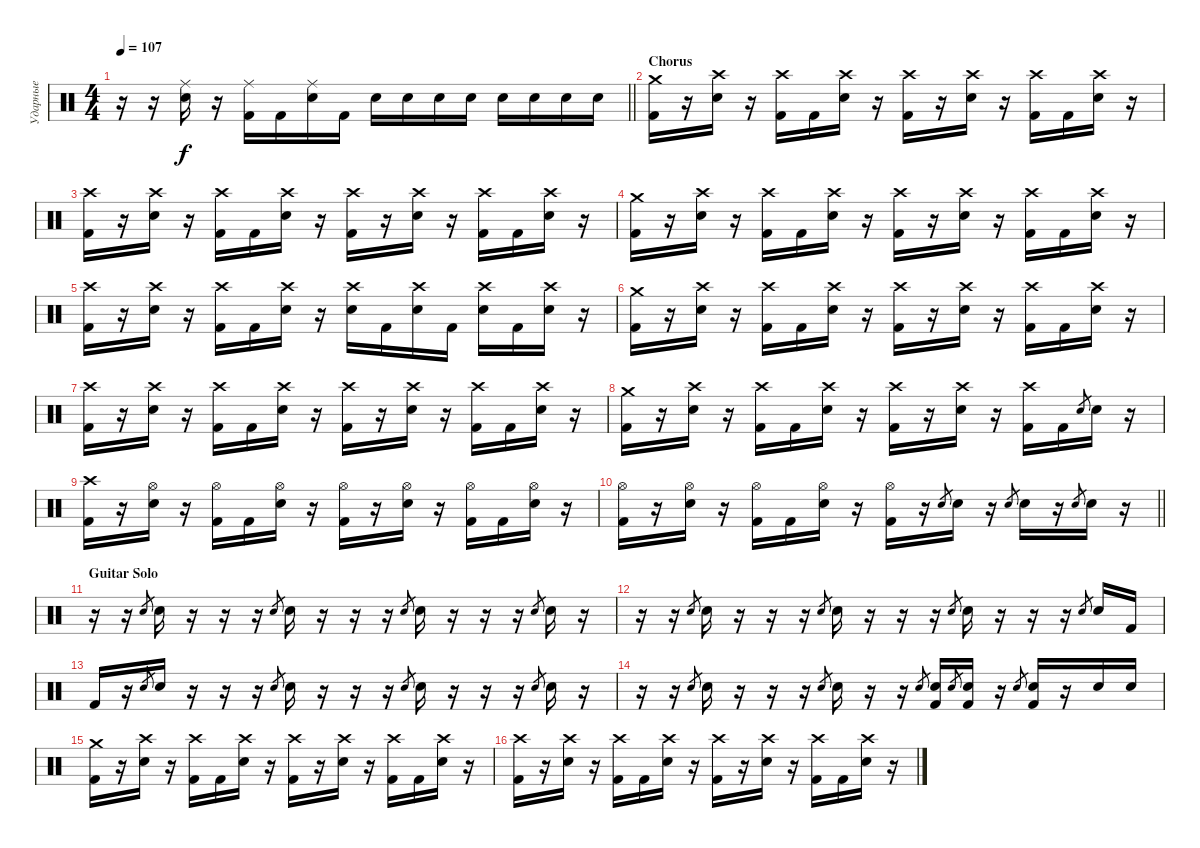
\track ("Ударные" "Ударные") {instrument percussion}
\staff {score}
\articulation defaults
\ts (4 4)
\tempo 107
\clef neutral
\barLineRight lightlight
\ks c
r.16{dy f} r.16 ("Ride (middle)" "Electric Snare (hit)").16 r.16 ("Ride (middle)" "Kick (hit) 2").16 "Kick (hit) 2".16 ("Ride (middle)" "Electric Snare (hit)").16 "Kick (hit) 2".16 "Electric Snare (hit)".16 "Electric Snare (hit)".16 "Electric Snare (hit)".16 "Electric Snare (hit)".16 "Electric Snare (hit)".16 "Electric Snare (hit)".16 "Electric Snare (hit)".16 "Electric Snare (hit)".16 |
\section ("" "Chorus")
("Crash medium (hit)" "Kick (hit) 2").16 r.16 ("Crash high (hit)" "Electric Snare (hit)").16 r.16 ("Crash high (hit)" "Kick (hit) 2").16 "Kick (hit) 2".16 ("Crash high (hit)" "Electric Snare (hit)").16 r.16 ("Crash high (hit)" "Kick (hit) 2").16 r.16 ("Crash high (hit)" "Electric Snare (hit)").16 r.16 ("Crash high (hit)" "Kick (hit) 2").16 "Kick (hit) 2".16 ("Crash high (hit)" "Electric Snare (hit)").16 r.16 |
("Crash high (hit)" "Kick (hit) 2").16 r.16 ("Crash high (hit)" "Electric Snare (hit)").16 r.16 ("Crash high (hit)" "Kick (hit) 2").16 "Kick (hit) 2".16 ("Crash high (hit)" "Electric Snare (hit)").16 r.16 ("Crash high (hit)" "Kick (hit) 2").16 r.16 ("Crash high (hit)" "Electric Snare (hit)").16 r.16 ("Crash high (hit)" "Kick (hit) 2").16 "Kick (hit) 2".16 ("Crash high (hit)" "Electric Snare (hit)").16 r.16 |
("Crash medium (hit)" "Kick (hit) 2").16 r.16 ("Crash high (hit)" "Electric Snare (hit)").16 r.16 ("Crash high (hit)" "Kick (hit) 2").16 "Kick (hit) 2".16 ("Crash high (hit)" "Electric Snare (hit)").16 r.16 ("Crash high (hit)" "Kick (hit) 2").16 r.16 ("Crash high (hit)" "Electric Snare (hit)").16 r.16 ("Crash high (hit)" "Kick (hit) 2").16 "Kick (hit) 2".16 ("Crash high (hit)" "Electric Snare (hit)").16 r.16 |
("Crash high (hit)" "Kick (hit) 2").16 r.16 ("Crash high (hit)" "Electric Snare (hit)").16 r.16 ("Crash high (hit)" "Kick (hit) 2").16 "Kick (hit) 2".16 ("Crash high (hit)" "Electric Snare (hit)").16 r.16 ("Crash high (hit)" "Electric Snare (hit)").16 "Kick (hit) 2".16 ("Crash high (hit)" "Electric Snare (hit)").16 "Kick (hit) 2".16 ("Crash high (hit)" "Electric Snare (hit)").16 "Kick (hit) 2".16 ("Crash high (hit)" "Electric Snare (hit)").16 r.16 |
("Crash medium (hit)" "Kick (hit) 2").16 r.16 ("Crash high (hit)" "Electric Snare (hit)").16 r.16 ("Crash high (hit)" "Kick (hit) 2").16 "Kick (hit) 2".16 ("Crash high (hit)" "Electric Snare (hit)").16 r.16 ("Crash high (hit)" "Kick (hit) 2").16 r.16 ("Crash high (hit)" "Electric Snare (hit)").16 r.16 ("Crash high (hit)" "Kick (hit) 2").16 "Kick (hit) 2".16 ("Crash high (hit)" "Electric Snare (hit)").16 r.16 |
("Crash high (hit)" "Kick (hit) 2").16 r.16 ("Crash high (hit)" "Electric Snare (hit)").16 r.16 ("Crash high (hit)" "Kick (hit) 2").16 "Kick (hit) 2".16 ("Crash high (hit)" "Electric Snare (hit)").16 r.16 ("Crash high (hit)" "Kick (hit) 2").16 r.16 ("Crash high (hit)" "Electric Snare (hit)").16 r.16 ("Crash high (hit)" "Kick (hit) 2").16 "Kick (hit) 2".16 ("Crash high (hit)" "Electric Snare (hit)").16 r.16 |
("Crash medium (hit)" "Kick (hit) 2").16 r.16 ("Crash high (hit)" "Electric Snare (hit)").16 r.16 ("Crash high (hit)" "Kick (hit) 2").16 "Kick (hit) 2".16 ("Crash high (hit)" "Electric Snare (hit)").16 r.16 ("Crash high (hit)" "Kick (hit) 2").16 r.16 ("Crash high (hit)" "Electric Snare (hit)").16 r.16 ("Crash high (hit)" "Kick (hit) 2").16 "Kick (hit) 2".16 "Electric Snare (hit)".8{gr} "Electric Snare (hit)".16 r.16 |
("Crash high (hit)" "Kick (hit) 2").16 r.16 ("Hi-Hat (open)" "Electric Snare (hit)").16 r.16 ("Hi-Hat (open)" "Kick (hit) 2").16 "Kick (hit) 2".16 ("Hi-Hat (open)" "Electric Snare (hit)").16 r.16 ("Hi-Hat (open)" "Kick (hit) 2").16 r.16 ("Hi-Hat (open)" "Electric Snare (hit)").16 r.16 ("Hi-Hat (open)" "Kick (hit) 2").16 "Kick (hit) 2".16 ("Hi-Hat (open)" "Electric Snare (hit)").16 r.16 |
\barLineRight lightlight
("Hi-Hat (open)" "Kick (hit) 2").16 r.16 ("Hi-Hat (open)" "Electric Snare (hit)").16 r.16 ("Hi-Hat (open)" "Kick (hit) 2").16 "Kick (hit) 2".16 ("Hi-Hat (open)" "Electric Snare (hit)").16 r.16 ("Hi-Hat (open)" "Kick (hit) 2").16 r.16 "Electric Snare (hit)".8{gr} "Electric Snare (hit)".16 r.16 "Electric Snare (hit)".8{gr} "Electric Snare (hit)".16 r.16 "Electric Snare (hit)".8{gr} "Electric Snare (hit)".16 r.16 |
\section ("" "Guitar Solo")
r.16 r.16 "Electric Snare (hit)".8{gr} "Electric Snare (hit)".16 r.16 r.16 r.16 "Electric Snare (hit)".8{gr} "Electric Snare (hit)".16 r.16 r.16 r.16 "Electric Snare (hit)".8{gr} "Electric Snare (hit)".16 r.16 r.16 r.16 "Electric Snare (hit)".8{gr} "Electric Snare (hit)".16 r.16 |
r.16 r.16 "Electric Snare (hit)".8{gr} "Electric Snare (hit)".16 r.16 r.16 r.16 "Electric Snare (hit)".8{gr} "Electric Snare (hit)".16 r.16 r.16 r.16 "Electric Snare (hit)".8{gr} "Electric Snare (hit)".16 r.16 r.16 r.16 "Electric Snare (hit)".8{gr} "Electric Snare (hit)".16 "Kick (hit) 2".16 |
"Kick (hit) 2".16 r.16 "Electric Snare (hit)".8{gr} "Electric Snare (hit)".16 r.16 r.16 r.16 "Electric Snare (hit)".8{gr} "Electric Snare (hit)".16 r.16 r.16 r.16 "Electric Snare (hit)".8{gr} "Electric Snare (hit)".16 r.16 r.16 r.16 "Electric Snare (hit)".8{gr} "Electric Snare (hit)".16 r.16 |
r.16 r.16 "Electric Snare (hit)".8{gr} "Electric Snare (hit)".16 r.16 r.16 r.16 "Electric Snare (hit)".8{gr} "Electric Snare (hit)".16 r.16 r.16 "Electric Snare (hit)".8{gr} ("Electric Snare (hit)" "Kick (hit) 2").16 "Electric Snare (hit)".8{gr} ("Electric Snare (hit)" "Kick (hit) 2").16 r.16 "Electric Snare (hit)".8{gr} ("Electric Snare (hit)" "Kick (hit) 2").16 r.16 "Electric Snare (hit)".16 "Electric Snare (hit)".16 |
("Crash medium (hit)" "Kick (hit) 2").16 r.16 ("Crash high (hit)" "Electric Snare (hit)").16 r.16 ("Crash high (hit)" "Kick (hit) 2").16 "Kick (hit) 2".16 ("Crash high (hit)" "Electric Snare (hit)").16 r.16 ("Crash high (hit)" "Kick (hit) 2").16 r.16 ("Crash high (hit)" "Electric Snare (hit)").16 r.16 ("Crash high (hit)" "Kick (hit) 2").16 "Kick (hit) 2".16 ("Crash high (hit)" "Electric Snare (hit)").16 r.16 |
("Crash high (hit)" "Kick (hit) 2").16 r.16 ("Crash high (hit)" "Electric Snare (hit)").16 r.16 ("Crash high (hit)" "Kick (hit) 2").16 "Kick (hit) 2".16 ("Crash high (hit)" "Electric Snare (hit)").16 r.16 ("Crash high (hit)" "Kick (hit) 2").16 r.16 ("Crash high (hit)" "Electric Snare (hit)").16 r.16 ("Crash high (hit)" "Kick (hit) 2").16 "Kick (hit) 2".16 ("Crash high (hit)" "Electric Snare (hit)").16 r.16
